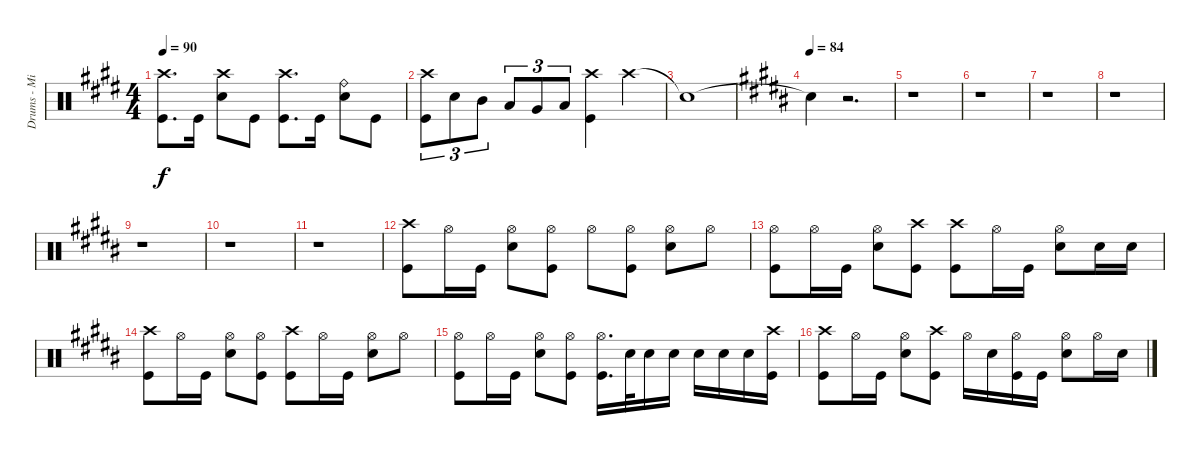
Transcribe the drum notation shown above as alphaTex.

\track ("Drums - Mike Portnoy" "Drums - Mi") {instrument percussion}
\staff {score}
\articulation defaults
\ts (4 4)
\tempo 90
\clef neutral
\ks e
("Crash high (hit)" "Kick (hit)").8{d dy f} "Kick (hit)".16 ("Crash high (hit)" "Snare (hit) 2").8 "Kick (hit)".8 ("Crash high (hit)" "Kick (hit)").8{d} "Kick (hit)".16 ("Ride (bell)" "Snare (hit) 2").8 "Kick (hit)".8 |
("Crash high (hit)" "Kick (hit)").8{tu (3 2)} "Snare (hit) 2".8{tu (3 2)} "Mid Tom (hit)".8{tu (3 2)} "Low Tom (hit)".8{tu (3 2)} "Very Low Tom (hit)".8{tu (3 2)} "Low Floor Tom (hit)".8{tu (3 2)} ("Crash high (hit)" "Kick (hit)").4 "Crash high (hit)".4 |
"Snare (hit)"{t}.1 |
\tempo 84
\ks b "Snare (hit)"{t}.4
r.2{d} |
r.1 |
r.1 |
r.1 |
r.1 |
r.1 |
r.1 |
r.1 |
("Crash high (hit)" "Kick (hit)").8 "Hi-Hat (open)".16 "Kick (hit)".16 ("Hi-Hat (open)" "Snare (hit) 2").8 ("Hi-Hat (open)" "Kick (hit)").8 "Hi-Hat (open)".8 ("Hi-Hat (open)" "Kick (hit)").8 ("Hi-Hat (open)" "Snare (hit) 2").8 "Hi-Hat (open)".8 |
("Hi-Hat (open)" "Kick (hit)").8 "Hi-Hat (open)".16 "Kick (hit)".16 ("Hi-Hat (open)" "Snare (hit) 2").8 ("Crash high (hit)" "Kick (hit)").8 ("Crash high (hit)" "Kick (hit)").8 "Hi-Hat (open)".16 "Kick (hit)".16 ("Hi-Hat (open)" "Snare (hit) 2").8 "Snare (hit) 2".16 "Snare (hit) 2".16 |
("Crash high (hit)" "Kick (hit)").8 "Hi-Hat (open)".16 "Kick (hit)".16 ("Hi-Hat (open)" "Snare (hit) 2").8 ("Hi-Hat (open)" "Kick (hit)").8 ("Crash high (hit)" "Kick (hit)").8 "Hi-Hat (open)".16 "Kick (hit)".16 ("Hi-Hat (open)" "Snare (hit) 2").8 "Hi-Hat (open)".8 |
("Hi-Hat (open)" "Kick (hit)").8 "Hi-Hat (open)".16 "Kick (hit)".16 ("Hi-Hat (open)" "Snare (hit) 2").8 ("Hi-Hat (open)" "Kick (hit)").8 ("Hi-Hat (open)" "Kick (hit)").16{d} "Snare (hit) 2".32 "Snare (hit) 2".16 "Snare (hit) 2".16 "Snare (hit) 2".16 "Snare (hit) 2".16 "Snare (hit) 2".16 ("Crash high (hit)" "Kick (hit)").16 |
("Crash high (hit)" "Kick (hit)").8 "Hi-Hat (open)".16 "Kick (hit)".16 ("Hi-Hat (open)" "Snare (hit) 2").8 ("Crash high (hit)" "Kick (hit)").8 "Hi-Hat (open)".16 "Snare (hit) 2".16 ("Hi-Hat (open)" "Kick (hit)").16 "Kick (hit)".16 ("Hi-Hat (open)" "Snare (hit) 2").8 "Hi-Hat (open)".16 "Snare (hit) 2".16
